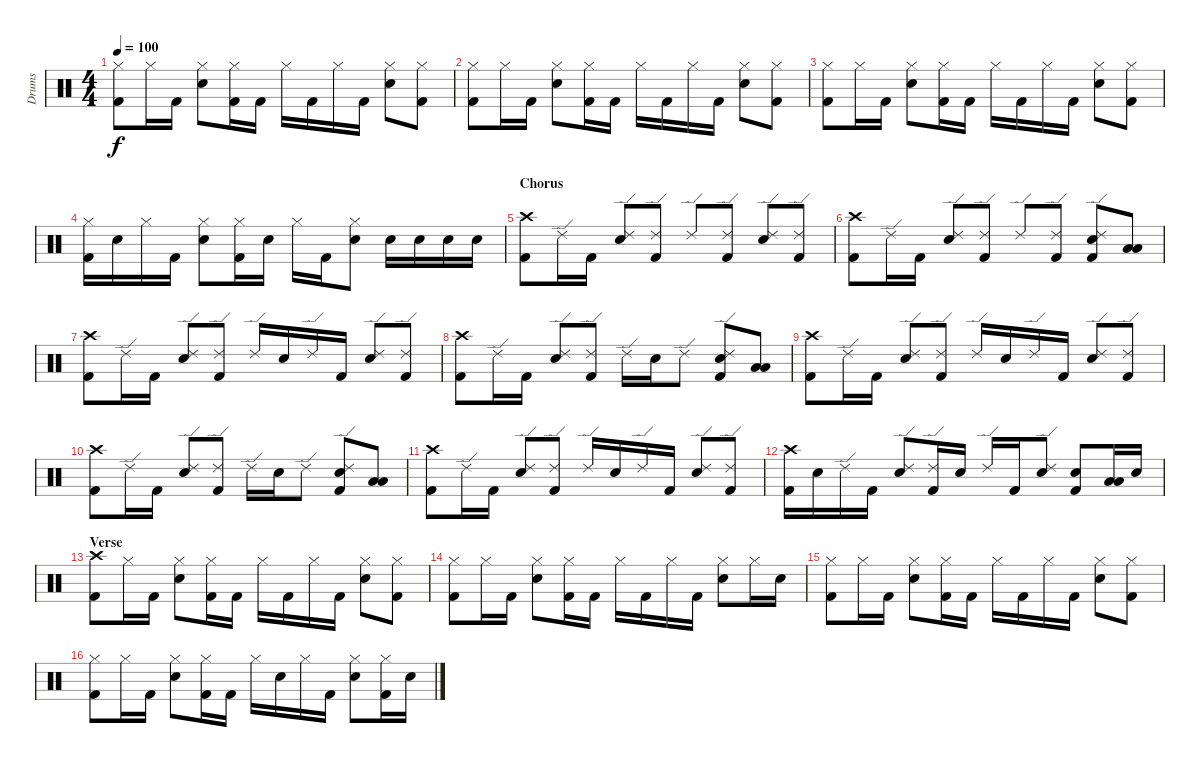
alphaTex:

\track ("Drums" "Drums") {instrument percussion}
\staff {score}
\articulation defaults
\ts (4 4)
\tempo 100
\clef neutral
\ks c
("Hi-Hat (closed)" "Kick (hit) 2").8{dy f} "Hi-Hat (closed)".16 "Kick (hit) 2".16 ("Hi-Hat (closed)" "Electric Snare (hit)").8 ("Hi-Hat (closed)" "Kick (hit) 2").16 "Kick (hit) 2".16 "Hi-Hat (closed)".16 "Kick (hit) 2".16 "Hi-Hat (closed)".16 "Kick (hit) 2".16 ("Hi-Hat (closed)" "Electric Snare (hit)").8 ("Hi-Hat (closed)" "Kick (hit) 2").8 |
("Hi-Hat (closed)" "Kick (hit) 2").8 "Hi-Hat (closed)".16 "Kick (hit) 2".16 ("Hi-Hat (closed)" "Electric Snare (hit)").8 ("Hi-Hat (closed)" "Kick (hit) 2").16 "Kick (hit) 2".16 "Hi-Hat (closed)".16 "Kick (hit) 2".16 "Hi-Hat (closed)".16 "Kick (hit) 2".16 ("Hi-Hat (closed)" "Electric Snare (hit)").8 ("Hi-Hat (closed)" "Kick (hit) 2").8 |
("Hi-Hat (closed)" "Kick (hit) 2").8 "Hi-Hat (closed)".16 "Kick (hit) 2".16 ("Hi-Hat (closed)" "Electric Snare (hit)").8 ("Hi-Hat (closed)" "Kick (hit) 2").16 "Kick (hit) 2".16 "Hi-Hat (closed)".16 "Kick (hit) 2".16 "Hi-Hat (closed)".16 "Kick (hit) 2".16 ("Hi-Hat (closed)" "Electric Snare (hit)").8 ("Hi-Hat (closed)" "Kick (hit) 2").8 |
("Hi-Hat (closed)" "Kick (hit) 2").16 "Electric Snare (hit)".16 "Hi-Hat (closed)".16 "Kick (hit) 2".16 ("Hi-Hat (closed)" "Electric Snare (hit)").8 ("Hi-Hat (closed)" "Kick (hit) 2").16 "Electric Snare (hit)".16 "Hi-Hat (closed)".16 "Kick (hit) 2".16 ("Hi-Hat (closed)" "Electric Snare (hit)").8 "Electric Snare (hit)".16 "Electric Snare (hit)".16 "Electric Snare (hit)".16 "Electric Snare (hit)".16 |
\section ("" "Chorus")
("Crash high (hit)" "Kick (hit) 2").8 "Ride (edge) 2".16 "Kick (hit) 2".16 ("Ride (edge) 2" "Electric Snare (hit)").8 ("Ride (edge) 2" "Kick (hit) 2").8 "Ride (edge) 2".8 ("Ride (edge) 2" "Kick (hit) 2").8 ("Ride (edge) 2" "Electric Snare (hit)").8 ("Ride (edge) 2" "Kick (hit) 2").8 |
("Crash high (hit)" "Kick (hit) 2").8 "Ride (edge) 2".16 "Kick (hit) 2".16 ("Ride (edge) 2" "Electric Snare (hit)").8 ("Ride (edge) 2" "Kick (hit) 2").8 "Ride (edge) 2".8 ("Ride (edge) 2" "Kick (hit) 2").8 ("Ride (edge) 2" "Electric Snare (hit)" "Kick (hit) 2").8 ("Low Tom (hit)" "Low Floor Tom (hit)").8 |
("Crash high (hit)" "Kick (hit) 2").8 "Ride (edge) 2".16 "Kick (hit) 2".16 ("Ride (edge) 2" "Electric Snare (hit)").8 ("Ride (edge) 2" "Kick (hit) 2").8 "Ride (edge) 2".16 "Electric Snare (hit)".16 "Ride (edge) 2".16 "Kick (hit) 2".16 ("Ride (edge) 2" "Electric Snare (hit)").8 ("Ride (edge) 2" "Kick (hit) 2").8 |
("Crash high (hit)" "Kick (hit) 2").8 "Ride (edge) 2".16 "Kick (hit) 2".16 ("Ride (edge) 2" "Electric Snare (hit)").8 ("Ride (edge) 2" "Kick (hit) 2").8 "Ride (edge) 2".16 "Electric Snare (hit)".16 "Ride (edge) 2".8 ("Ride (edge) 2" "Electric Snare (hit)" "Kick (hit) 2").8 ("Low Tom (hit)" "Low Floor Tom (hit)").8 |
("Crash high (hit)" "Kick (hit) 2").8 "Ride (edge) 2".16 "Kick (hit) 2".16 ("Ride (edge) 2" "Electric Snare (hit)").8 ("Ride (edge) 2" "Kick (hit) 2").8 "Ride (edge) 2".16 "Electric Snare (hit)".16 "Ride (edge) 2".16 "Kick (hit) 2".16 ("Ride (edge) 2" "Electric Snare (hit)").8 ("Ride (edge) 2" "Kick (hit) 2").8 |
("Crash high (hit)" "Kick (hit) 2").8 "Ride (edge) 2".16 "Kick (hit) 2".16 ("Ride (edge) 2" "Electric Snare (hit)").8 ("Ride (edge) 2" "Kick (hit) 2").8 "Ride (edge) 2".16 "Electric Snare (hit)".16 "Ride (edge) 2".8 ("Ride (edge) 2" "Electric Snare (hit)" "Kick (hit) 2").8 ("Low Tom (hit)" "Low Floor Tom (hit)").8 |
("Crash high (hit)" "Kick (hit) 2").8 "Ride (edge) 2".16 "Kick (hit) 2".16 ("Ride (edge) 2" "Electric Snare (hit)").8 ("Ride (edge) 2" "Kick (hit) 2").8 "Ride (edge) 2".16 "Electric Snare (hit)".16 "Ride (edge) 2".16 "Kick (hit) 2".16 ("Ride (edge) 2" "Electric Snare (hit)").8 ("Ride (edge) 2" "Kick (hit) 2").8 |
("Crash high (hit)" "Kick (hit) 2").16 "Electric Snare (hit)".16 "Ride (edge) 2".16 "Kick (hit) 2".16 ("Ride (edge) 2" "Electric Snare (hit)").8 ("Ride (edge) 2" "Kick (hit) 2").16 "Electric Snare (hit)".16 "Ride (edge) 2".16 "Kick (hit) 2".16 ("Ride (edge) 2" "Electric Snare (hit)").8 ("Electric Snare (hit)" "Kick (hit) 2").8 ("Low Tom (hit)" "Low Floor Tom (hit)").16 "Electric Snare (hit)".16 |
\section ("" "Verse")
("Crash high (hit)" "Kick (hit) 2").8 "Hi-Hat (closed)".16 "Kick (hit) 2".16 ("Hi-Hat (closed)" "Electric Snare (hit)").8 ("Hi-Hat (closed)" "Kick (hit) 2").16 "Kick (hit) 2".16 "Hi-Hat (closed)".16 "Kick (hit) 2".16 "Hi-Hat (closed)".16 "Kick (hit) 2".16 ("Hi-Hat (closed)" "Electric Snare (hit)").8 ("Hi-Hat (closed)" "Kick (hit) 2").8 |
("Hi-Hat (closed)" "Kick (hit) 2").8 "Hi-Hat (closed)".16 "Kick (hit) 2".16 ("Hi-Hat (closed)" "Electric Snare (hit)").8 ("Hi-Hat (closed)" "Kick (hit) 2").16 "Kick (hit) 2".16 "Hi-Hat (closed)".16 "Kick (hit) 2".16 "Hi-Hat (closed)".16 "Kick (hit) 2".16 ("Hi-Hat (closed)" "Electric Snare (hit)").8 "Hi-Hat (closed)".16 "Electric Snare (hit)".16 |
("Hi-Hat (closed)" "Kick (hit) 2").8 "Hi-Hat (closed)".16 "Kick (hit) 2".16 ("Hi-Hat (closed)" "Electric Snare (hit)").8 ("Hi-Hat (closed)" "Kick (hit) 2").16 "Kick (hit) 2".16 "Hi-Hat (closed)".16 "Kick (hit) 2".16 "Hi-Hat (closed)".16 "Kick (hit) 2".16 ("Hi-Hat (closed)" "Electric Snare (hit)").8 ("Hi-Hat (closed)" "Kick (hit) 2").8 |
("Hi-Hat (closed)" "Kick (hit) 2").8 "Hi-Hat (closed)".16 "Kick (hit) 2".16 ("Hi-Hat (closed)" "Electric Snare (hit)").8 ("Hi-Hat (closed)" "Kick (hit) 2").16 "Kick (hit) 2".16 "Hi-Hat (closed)".16 "Electric Snare (hit)".16 "Hi-Hat (closed)".16 "Kick (hit) 2".16 ("Hi-Hat (closed)" "Electric Snare (hit)").8 ("Hi-Hat (closed)" "Kick (hit) 2").16 "Electric Snare (hit)".16
